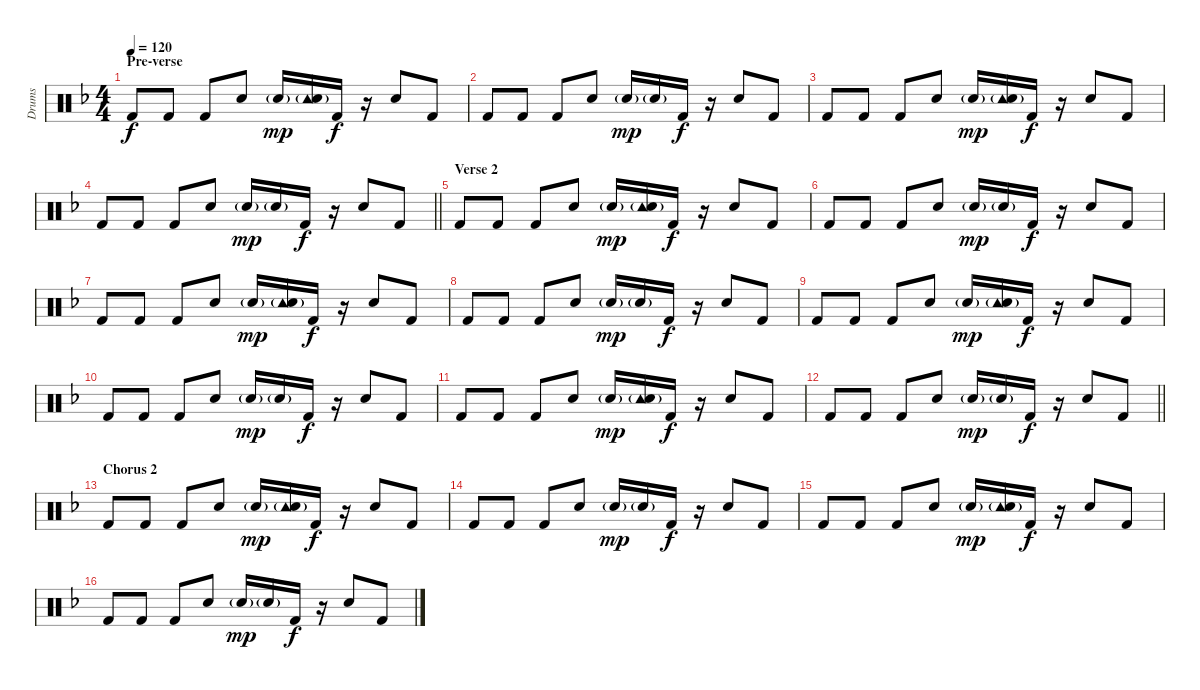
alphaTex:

\track ("Drums" "Drums") {instrument percussion}
\staff {score}
\articulation defaults
\ts (4 4)
\section ("" "Pre-verse")
\tempo 120
\clef neutral
\ks f "Kick (hit) 2".8{dy f} "Kick (hit) 2".8 "Kick (hit) 2".8 "Snare (hit) 2".8 "Snare (hit) 2"{g}.16{dy mp}
("Tambourine (hit)" "Snare (hit) 2"{g}).16 "Kick (hit) 2".16{dy f} r.16 "Snare (hit) 2".8 "Kick (hit) 2".8 |
"Kick (hit) 2".8 "Kick (hit) 2".8 "Kick (hit) 2".8 "Snare (hit) 2".8 "Snare (hit) 2"{g}.16{dy mp} "Snare (hit) 2"{g}.16 "Kick (hit) 2".16{dy f} r.16 "Snare (hit) 2".8 "Kick (hit) 2".8 |
"Kick (hit) 2".8 "Kick (hit) 2".8 "Kick (hit) 2".8 "Snare (hit) 2".8 "Snare (hit) 2"{g}.16{dy mp} ("Tambourine (hit)" "Snare (hit) 2"{g}).16 "Kick (hit) 2".16{dy f} r.16 "Snare (hit) 2".8 "Kick (hit) 2".8 |
\barLineRight lightlight "Kick (hit) 2".8 "Kick (hit) 2".8 "Kick (hit) 2".8 "Snare (hit) 2".8 "Snare (hit) 2"{g}.16{dy mp} "Snare (hit) 2"{g}.16 "Kick (hit) 2".16{dy f}
r.16 "Snare (hit) 2".8 "Kick (hit) 2".8 |
\section ("" "Verse 2")
"Kick (hit) 2".8 "Kick (hit) 2".8 "Kick (hit) 2".8 "Snare (hit) 2".8 "Snare (hit) 2"{g}.16{dy mp} ("Tambourine (hit)" "Snare (hit) 2"{g}).16 "Kick (hit) 2".16{dy f} r.16 "Snare (hit) 2".8 "Kick (hit) 2".8 |
"Kick (hit) 2".8 "Kick (hit) 2".8 "Kick (hit) 2".8 "Snare (hit) 2".8 "Snare (hit) 2"{g}.16{dy mp} "Snare (hit) 2"{g}.16 "Kick (hit) 2".16{dy f} r.16 "Snare (hit) 2".8 "Kick (hit) 2".8 |
"Kick (hit) 2".8 "Kick (hit) 2".8 "Kick (hit) 2".8 "Snare (hit) 2".8 "Snare (hit) 2"{g}.16{dy mp} ("Tambourine (hit)" "Snare (hit) 2"{g}).16 "Kick (hit) 2".16{dy f} r.16 "Snare (hit) 2".8 "Kick (hit) 2".8 |
"Kick (hit) 2".8 "Kick (hit) 2".8 "Kick (hit) 2".8 "Snare (hit) 2".8 "Snare (hit) 2"{g}.16{dy mp} "Snare (hit) 2"{g}.16 "Kick (hit) 2".16{dy f} r.16 "Snare (hit) 2".8 "Kick (hit) 2".8 |
"Kick (hit) 2".8 "Kick (hit) 2".8 "Kick (hit) 2".8 "Snare (hit) 2".8 "Snare (hit) 2"{g}.16{dy mp} ("Tambourine (hit)" "Snare (hit) 2"{g}).16 "Kick (hit) 2".16{dy f} r.16 "Snare (hit) 2".8 "Kick (hit) 2".8 |
"Kick (hit) 2".8 "Kick (hit) 2".8 "Kick (hit) 2".8 "Snare (hit) 2".8 "Snare (hit) 2"{g}.16{dy mp} "Snare (hit) 2"{g}.16 "Kick (hit) 2".16{dy f} r.16 "Snare (hit) 2".8 "Kick (hit) 2".8 |
"Kick (hit) 2".8 "Kick (hit) 2".8 "Kick (hit) 2".8 "Snare (hit) 2".8 "Snare (hit) 2"{g}.16{dy mp} ("Tambourine (hit)" "Snare (hit) 2"{g}).16 "Kick (hit) 2".16{dy f} r.16 "Snare (hit) 2".8 "Kick (hit) 2".8 |
\barLineRight lightlight "Kick (hit) 2".8 "Kick (hit) 2".8 "Kick (hit) 2".8 "Snare (hit) 2".8 "Snare (hit) 2"{g}.16{dy mp} "Snare (hit) 2"{g}.16 "Kick (hit) 2".16{dy f}
r.16 "Snare (hit) 2".8 "Kick (hit) 2".8 |
\section ("" "Chorus 2")
"Kick (hit) 2".8 "Kick (hit) 2".8 "Kick (hit) 2".8 "Snare (hit) 2".8 "Snare (hit) 2"{g}.16{dy mp} ("Tambourine (hit)" "Snare (hit) 2"{g}).16 "Kick (hit) 2".16{dy f} r.16 "Snare (hit) 2".8 "Kick (hit) 2".8 |
"Kick (hit) 2".8 "Kick (hit) 2".8 "Kick (hit) 2".8 "Snare (hit) 2".8 "Snare (hit) 2"{g}.16{dy mp} "Snare (hit) 2"{g}.16 "Kick (hit) 2".16{dy f} r.16 "Snare (hit) 2".8 "Kick (hit) 2".8 |
"Kick (hit) 2".8 "Kick (hit) 2".8 "Kick (hit) 2".8 "Snare (hit) 2".8 "Snare (hit) 2"{g}.16{dy mp} ("Tambourine (hit)" "Snare (hit) 2"{g}).16 "Kick (hit) 2".16{dy f} r.16 "Snare (hit) 2".8 "Kick (hit) 2".8 |
"Kick (hit) 2".8 "Kick (hit) 2".8 "Kick (hit) 2".8 "Snare (hit) 2".8 "Snare (hit) 2"{g}.16{dy mp} "Snare (hit) 2"{g}.16 "Kick (hit) 2".16{dy f} r.16 "Snare (hit) 2".8 "Kick (hit) 2".8
